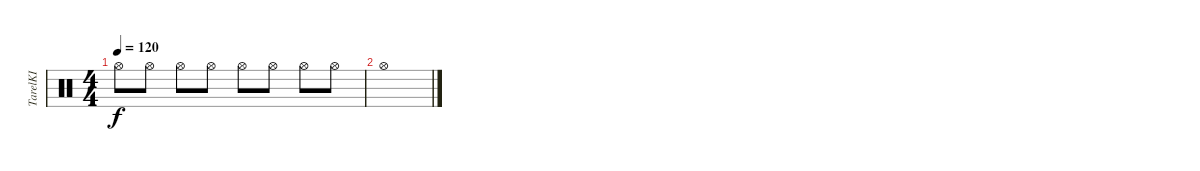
\track ("TarelKI" "TarelKI") {instrument percussion}
\staff {score}
\articulation defaults
\ts (4 4)
\tempo 120
\clef neutral
\ks c "Hi-Hat (open)".8{dy f} "Hi-Hat (open)".8 "Hi-Hat (open)".8 "Hi-Hat (open)".8 "Hi-Hat (open)".8 "Hi-Hat (open)".8 "Hi-Hat (open)".8 "Hi-Hat (open)".8
|
"Hi-Hat (open)".1
